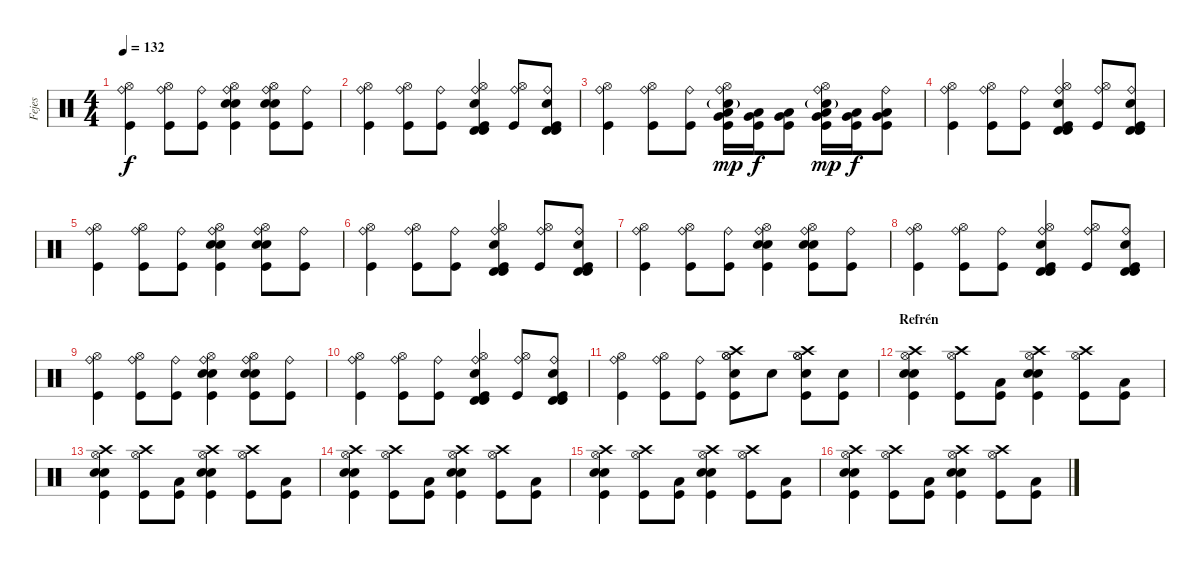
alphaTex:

\track ("Fejes" "Fejes") {instrument percussion}
\staff {score}
\articulation defaults
\ts (4 4)
\tempo 132
\clef neutral
\ks c
("Ride (bell)" "Hi-Hat (open)" "Kick (hit)").4{dy f} ("Ride (bell)" "Hi-Hat (open)" "Kick (hit)").8 ("Ride (bell)" "Kick (hit)").8 ("Ride (bell)" "Hi-Hat (open)" "Snare (hit) 2" "Snare (hit) 2" "Kick (hit)").4 ("Ride (bell)" "Hi-Hat (open)" "Snare (hit) 2" "Snare (hit) 2" "Kick (hit)").8 ("Ride (bell)" "Kick (hit)").8 |
("Ride (bell)" "Hi-Hat (open)" "Kick (hit)").4 ("Ride (bell)" "Hi-Hat (open)" "Kick (hit)").8 ("Ride (bell)" "Kick (hit)").8 ("Ride (bell)" "Hi-Hat (open)" "Snare (hit) 2" "Timbale high (hit)" "Timbale high (hit)" "Kick (hit)").4 ("Ride (bell)" "Hi-Hat (open)" "Kick (hit)").8 ("Ride (bell)" "Snare (hit) 2" "Timbale high (hit)" "Timbale high (hit)" "Kick (hit)").8 |
("Ride (bell)" "Hi-Hat (open)" "Kick (hit)").4 ("Ride (bell)" "Hi-Hat (open)" "Kick (hit)").8 ("Ride (bell)" "Kick (hit)").8 ("Ride (bell)" "Hi-Hat (open)" "Snare (hit) 2"{g} "Low Floor Tom (hit)" "Very Low Tom (hit)" "Kick (hit)").16{dy mp} ("Low Floor Tom (hit)" "Very Low Tom (hit)" "Kick (hit)").16{dy f} ("Low Floor Tom (hit)" "Very Low Tom (hit)" "Kick (hit)").8 ("Ride (bell)" "Hi-Hat (open)" "Snare (hit) 2"{g} "Low Floor Tom (hit)" "Very Low Tom (hit)" "Kick (hit)").16{dy mp} ("Low Floor Tom (hit)" "Very Low Tom (hit)" "Kick (hit)").16{dy f} ("Ride (bell)" "Low Floor Tom (hit)" "Very Low Tom (hit)" "Kick (hit)").8 |
("Ride (bell)" "Hi-Hat (open)" "Kick (hit)").4 ("Ride (bell)" "Hi-Hat (open)" "Kick (hit)").8 ("Ride (bell)" "Kick (hit)").8 ("Ride (bell)" "Hi-Hat (open)" "Snare (hit) 2" "Timbale high (hit)" "Timbale high (hit)" "Kick (hit)").4 ("Ride (bell)" "Hi-Hat (open)" "Kick (hit)").8 ("Ride (bell)" "Snare (hit) 2" "Timbale high (hit)" "Timbale high (hit)" "Kick (hit)").8 |
("Ride (bell)" "Hi-Hat (open)" "Kick (hit)").4 ("Ride (bell)" "Hi-Hat (open)" "Kick (hit)").8 ("Ride (bell)" "Kick (hit)").8 ("Ride (bell)" "Hi-Hat (open)" "Snare (hit) 2" "Snare (hit) 2" "Kick (hit)").4 ("Ride (bell)" "Hi-Hat (open)" "Snare (hit) 2" "Snare (hit) 2" "Kick (hit)").8 ("Ride (bell)" "Kick (hit)").8 |
("Ride (bell)" "Hi-Hat (open)" "Kick (hit)").4 ("Ride (bell)" "Hi-Hat (open)" "Kick (hit)").8 ("Ride (bell)" "Kick (hit)").8 ("Ride (bell)" "Hi-Hat (open)" "Snare (hit) 2" "Timbale high (hit)" "Timbale high (hit)" "Kick (hit)").4 ("Ride (bell)" "Hi-Hat (open)" "Kick (hit)").8 ("Ride (bell)" "Snare (hit) 2" "Timbale high (hit)" "Timbale high (hit)" "Kick (hit)").8 |
("Ride (bell)" "Hi-Hat (open)" "Kick (hit)").4 ("Ride (bell)" "Hi-Hat (open)" "Kick (hit)").8 ("Ride (bell)" "Kick (hit)").8 ("Ride (bell)" "Hi-Hat (open)" "Snare (hit) 2" "Snare (hit) 2" "Kick (hit)").4 ("Ride (bell)" "Hi-Hat (open)" "Snare (hit) 2" "Snare (hit) 2" "Kick (hit)").8 ("Ride (bell)" "Kick (hit)").8 |
("Ride (bell)" "Hi-Hat (open)" "Kick (hit)").4 ("Ride (bell)" "Hi-Hat (open)" "Kick (hit)").8 ("Ride (bell)" "Kick (hit)").8 ("Ride (bell)" "Hi-Hat (open)" "Snare (hit) 2" "Timbale high (hit)" "Timbale high (hit)" "Kick (hit)").4 ("Ride (bell)" "Hi-Hat (open)" "Kick (hit)").8 ("Ride (bell)" "Snare (hit) 2" "Timbale high (hit)" "Timbale high (hit)" "Kick (hit)").8 |
("Ride (bell)" "Hi-Hat (open)" "Kick (hit)").4 ("Ride (bell)" "Hi-Hat (open)" "Kick (hit)").8 ("Ride (bell)" "Kick (hit)").8 ("Ride (bell)" "Hi-Hat (open)" "Snare (hit) 2" "Snare (hit) 2" "Kick (hit)").4 ("Ride (bell)" "Hi-Hat (open)" "Snare (hit) 2" "Snare (hit) 2" "Kick (hit)").8 ("Ride (bell)" "Kick (hit)").8 |
("Ride (bell)" "Hi-Hat (open)" "Kick (hit)").4 ("Ride (bell)" "Hi-Hat (open)" "Kick (hit)").8 ("Ride (bell)" "Kick (hit)").8 ("Ride (bell)" "Hi-Hat (open)" "Snare (hit) 2" "Timbale high (hit)" "Timbale high (hit)" "Kick (hit)").4 ("Ride (bell)" "Hi-Hat (open)" "Kick (hit)").8 ("Ride (bell)" "Snare (hit) 2" "Timbale high (hit)" "Timbale high (hit)" "Kick (hit)").8 |
("Ride (bell)" "Hi-Hat (open)" "Kick (hit)").4 ("Ride (bell)" "Hi-Hat (open)" "Kick (hit)").8 ("Ride (bell)" "Kick (hit)").8 ("Hi-Hat (open)" "Hi-Hat (open)" "Snare (hit) 2" "Crash high (hit)" "Kick (hit)").8 "Snare (hit) 2".8 ("Hi-Hat (open)" "Hi-Hat (open)" "Snare (hit) 2" "Crash high (hit)" "Kick (hit)").8 ("Snare (hit) 2" "Kick (hit)").8 |
\section ("" "Refrén")
("Crash high (hit)" "Hi-Hat (open)" "Snare (hit) 2" "Snare (hit) 2" "Kick (hit)").4 ("Crash high (hit)" "Hi-Hat (open)" "Kick (hit)").8 ("Low Tom (hit)" "Kick (hit)").8 ("Crash high (hit)" "Hi-Hat (open)" "Snare (hit) 2" "Snare (hit) 2" "Kick (hit)").4 ("Crash high (hit)" "Hi-Hat (open)" "Kick (hit)").8 ("Low Tom (hit)" "Kick (hit)").8 |
("Crash high (hit)" "Hi-Hat (open)" "Snare (hit) 2" "Snare (hit) 2" "Kick (hit)").4 ("Crash high (hit)" "Hi-Hat (open)" "Kick (hit)").8 ("Low Tom (hit)" "Kick (hit)").8 ("Crash high (hit)" "Hi-Hat (open)" "Snare (hit) 2" "Snare (hit) 2" "Kick (hit)").4 ("Crash high (hit)" "Hi-Hat (open)" "Kick (hit)").8 ("Low Tom (hit)" "Kick (hit)").8 |
("Crash high (hit)" "Hi-Hat (open)" "Snare (hit) 2" "Snare (hit) 2" "Kick (hit)").4 ("Crash high (hit)" "Hi-Hat (open)" "Kick (hit)").8 ("Low Tom (hit)" "Kick (hit)").8 ("Crash high (hit)" "Hi-Hat (open)" "Snare (hit) 2" "Snare (hit) 2" "Kick (hit)").4 ("Crash high (hit)" "Hi-Hat (open)" "Kick (hit)").8 ("Low Tom (hit)" "Kick (hit)").8 |
("Crash high (hit)" "Hi-Hat (open)" "Snare (hit) 2" "Snare (hit) 2" "Kick (hit)").4 ("Crash high (hit)" "Hi-Hat (open)" "Kick (hit)").8 ("Low Tom (hit)" "Kick (hit)").8 ("Crash high (hit)" "Hi-Hat (open)" "Snare (hit) 2" "Snare (hit) 2" "Kick (hit)").4 ("Crash high (hit)" "Hi-Hat (open)" "Kick (hit)").8 ("Low Tom (hit)" "Kick (hit)").8 |
("Crash high (hit)" "Hi-Hat (open)" "Snare (hit) 2" "Snare (hit) 2" "Kick (hit)").4 ("Crash high (hit)" "Hi-Hat (open)" "Kick (hit)").8 ("Low Tom (hit)" "Kick (hit)").8 ("Crash high (hit)" "Hi-Hat (open)" "Snare (hit) 2" "Snare (hit) 2" "Kick (hit)").4 ("Crash high (hit)" "Hi-Hat (open)" "Kick (hit)").8 ("Low Tom (hit)" "Kick (hit)").8
